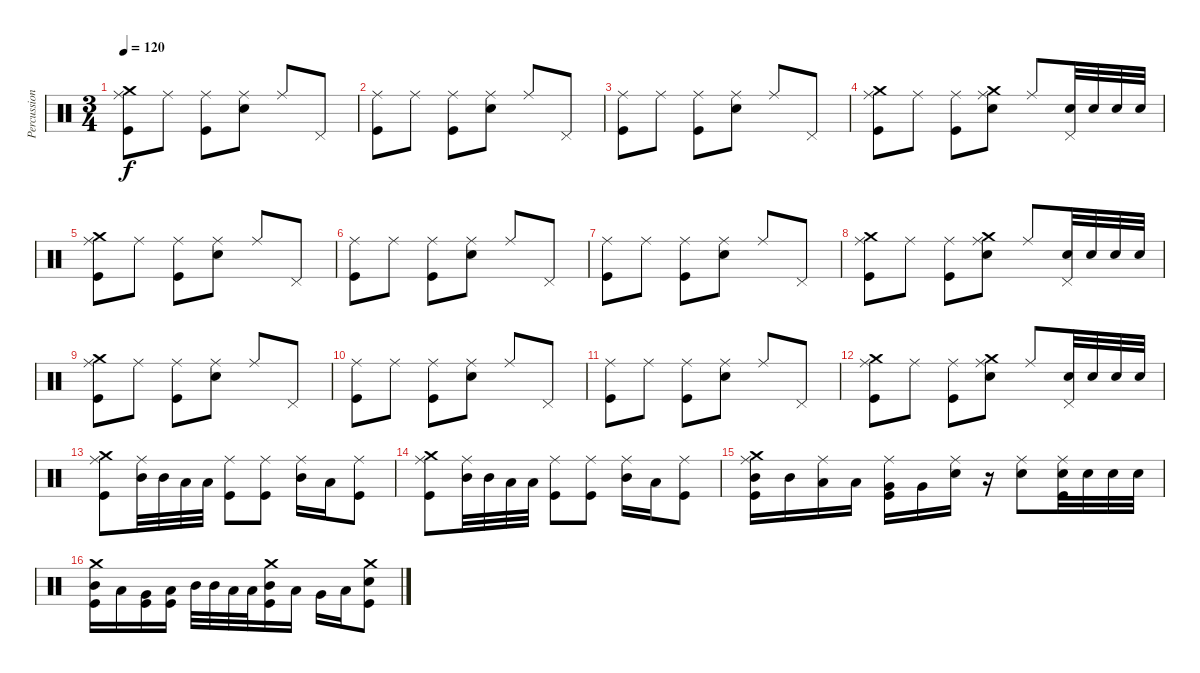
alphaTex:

\track ("Percussion" "Percussion") {instrument percussion}
\staff {score}
\articulation defaults
\ts (3 4)
\tempo 120
\clef neutral
\ks c
("Crash medium (hit)" "Ride (middle)" "Kick (hit)").8{dy f} "Ride (middle)".8 ("Ride (middle)" "Kick (hit)").8 ("Ride (middle)" "Electric Snare (hit)").8 "Ride (middle)".8 "Pedal Hi-Hat (hit)".8 |
("Ride (middle)" "Kick (hit)").8 "Ride (middle)".8 ("Ride (middle)" "Kick (hit)").8 ("Ride (middle)" "Electric Snare (hit)").8 "Ride (middle)".8 "Pedal Hi-Hat (hit)".8 |
("Ride (middle)" "Kick (hit)").8 "Ride (middle)".8 ("Ride (middle)" "Kick (hit)").8 ("Ride (middle)" "Electric Snare (hit)").8 "Ride (middle)".8 "Pedal Hi-Hat (hit)".8 |
("Crash medium (hit)" "Ride (middle)" "Kick (hit)").8 "Ride (middle)".8 ("Ride (middle)" "Kick (hit)").8 ("Crash medium (hit)" "Ride (middle)" "Electric Snare (hit)").8 "Ride (middle)".8 ("Pedal Hi-Hat (hit)" "Electric Snare (hit)").32 "Electric Snare (hit)".32 "Electric Snare (hit)".32 "Electric Snare (hit)".32 |
("Crash medium (hit)" "Ride (middle)" "Kick (hit)").8 "Ride (middle)".8 ("Ride (middle)" "Kick (hit)").8 ("Ride (middle)" "Electric Snare (hit)").8 "Ride (middle)".8 "Pedal Hi-Hat (hit)".8 |
("Ride (middle)" "Kick (hit)").8 "Ride (middle)".8 ("Ride (middle)" "Kick (hit)").8 ("Ride (middle)" "Electric Snare (hit)").8 "Ride (middle)".8 "Pedal Hi-Hat (hit)".8 |
("Ride (middle)" "Kick (hit)").8 "Ride (middle)".8 ("Ride (middle)" "Kick (hit)").8 ("Ride (middle)" "Electric Snare (hit)").8 "Ride (middle)".8 "Pedal Hi-Hat (hit)".8 |
("Crash medium (hit)" "Ride (middle)" "Kick (hit)").8 "Ride (middle)".8 ("Ride (middle)" "Kick (hit)").8 ("Crash medium (hit)" "Ride (middle)" "Electric Snare (hit)").8 "Ride (middle)".8 ("Pedal Hi-Hat (hit)" "Electric Snare (hit)").32 "Electric Snare (hit)".32 "Electric Snare (hit)".32 "Electric Snare (hit)".32 |
("Crash medium (hit)" "Ride (middle)" "Kick (hit)").8 "Ride (middle)".8 ("Ride (middle)" "Kick (hit)").8 ("Ride (middle)" "Electric Snare (hit)").8 "Ride (middle)".8 "Pedal Hi-Hat (hit)".8 |
("Ride (middle)" "Kick (hit)").8 "Ride (middle)".8 ("Ride (middle)" "Kick (hit)").8 ("Ride (middle)" "Electric Snare (hit)").8 "Ride (middle)".8 "Pedal Hi-Hat (hit)".8 |
("Ride (middle)" "Kick (hit)").8 "Ride (middle)".8 ("Ride (middle)" "Kick (hit)").8 ("Ride (middle)" "Electric Snare (hit)").8 "Ride (middle)".8 "Pedal Hi-Hat (hit)".8 |
("Crash medium (hit)" "Ride (middle)" "Kick (hit)").8 "Ride (middle)".8 ("Ride (middle)" "Kick (hit)").8 ("Crash medium (hit)" "Ride (middle)" "Electric Snare (hit)").8 "Ride (middle)".8 ("Pedal Hi-Hat (hit)" "Electric Snare (hit)").32 "Electric Snare (hit)".32 "Electric Snare (hit)".32 "Electric Snare (hit)".32 |
("Crash medium (hit)" "Ride (middle)" "Kick (hit)").8 ("Ride (middle)" "Mid Tom (hit)").32 "Mid Tom (hit)".32 "Low Tom (hit)".32 "Low Tom (hit)".32 ("Ride (middle)" "Kick (hit)").8 ("Ride (middle)" "Kick (hit)").8 ("Mid Tom (hit)" "Ride (middle)").16 "Low Floor Tom (hit)".16 ("Ride (middle)" "Kick (hit)").8 |
("Crash medium (hit)" "Ride (middle)" "Kick (hit)").8 ("Ride (middle)" "Mid Tom (hit)").32 "Mid Tom (hit)".32 "Low Tom (hit)".32 "Low Tom (hit)".32 ("Ride (middle)" "Kick (hit)").8 ("Ride (middle)" "Kick (hit)").8 ("Mid Tom (hit)" "Ride (middle)").16 "Low Floor Tom (hit)".16 ("Ride (middle)" "Kick (hit)").8 |
("Crash medium (hit)" "Mid Tom (hit)" "Ride (middle)" "Kick (hit)").16 "Mid Tom (hit)".16 ("Low Tom (hit)" "Ride (middle)").16 "Low Tom (hit)".16 ("Very Low Tom (hit)" "Ride (middle)" "Kick (hit)").16 "Very Low Tom (hit)".16 ("Electric Snare (hit)" "Ride (middle)").16 r.16 ("Ride (middle)" "Electric Snare (hit)").8 ("Electric Snare (hit)" "Ride (middle)" "Kick (hit)").32 "Electric Snare (hit)".32 "Electric Snare (hit)".32 "Electric Snare (hit)".32 |
("Crash medium (hit)" "Mid Tom (hit)" "Kick (hit)").16 "Low Tom (hit)".16 ("Very Low Tom (hit)" "Kick (hit)").16 ("Low Floor Tom (hit)" "Kick (hit)").16 "Mid Tom (hit)".32 "Mid Tom (hit)".32 "Low Tom (hit)".32 "Low Tom (hit)".32 ("Crash medium (hit)" "Mid Tom (hit)" "Kick (hit)").16 "Low Tom (hit)".16 "Very Low Tom (hit)".16 "Low Floor Tom (hit)".16 ("Crash medium (hit)" "Electric Snare (hit)" "Kick (hit)").8
